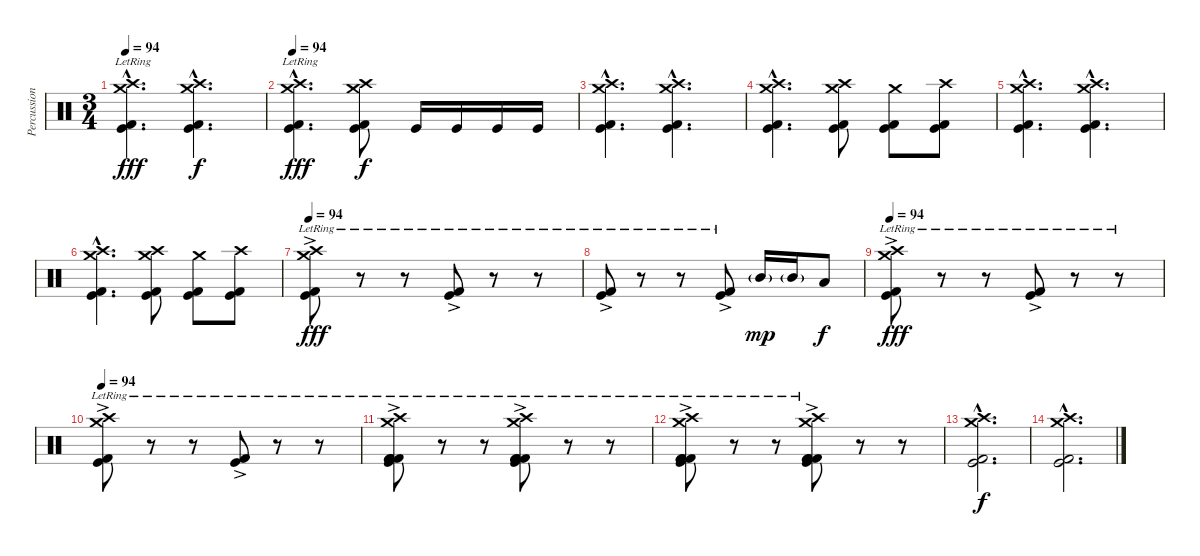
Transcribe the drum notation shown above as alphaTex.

\track ("Percussion" "Percussion") {instrument percussion}
\staff {score}
\articulation defaults
\ts (3 4)
\tempo 94
\clef neutral
\ks c
("Crash high (hit)"{hac} "Crash medium (hit)"{hac} "Kick (hit)"{hac} "Kick (hit) 2"{hac lr}).4{d dy fff} ("Crash high (hit)"{hac} "Crash medium (hit)"{hac} "Kick (hit)"{hac} "Kick (hit) 2"{hac}).4{d dy f} |
\tempo 94
("Crash high (hit)"{hac} "Crash medium (hit)"{hac} "Kick (hit)"{hac} "Kick (hit) 2"{hac lr}).4{d dy fff} ("Crash high (hit)" "Crash medium (hit)" "Kick (hit)" "Kick (hit) 2").8{dy f} "Kick (hit)".16 "Kick (hit)".16 "Kick (hit)".16 "Kick (hit)".16 |
("Crash high (hit)"{hac} "Crash medium (hit)"{hac} "Kick (hit)"{hac} "Kick (hit) 2"{hac}).4{d} ("Crash high (hit)"{hac} "Crash medium (hit)"{hac} "Kick (hit)"{hac} "Kick (hit) 2"{hac}).4{d} |
("Crash high (hit)"{hac} "Crash medium (hit)"{hac} "Kick (hit)"{hac} "Kick (hit) 2"{hac}).4{d} ("Crash high (hit)" "Crash medium (hit)" "Kick (hit)" "Kick (hit) 2").8 ("Crash medium (hit)" "Kick (hit)" "Kick (hit) 2").8 ("Crash high (hit)" "Kick (hit)" "Kick (hit) 2").8 |
("Crash high (hit)"{hac} "Crash medium (hit)"{hac} "Kick (hit)"{hac} "Kick (hit) 2"{hac}).4{d} ("Crash high (hit)"{hac} "Crash medium (hit)"{hac} "Kick (hit)"{hac} "Kick (hit) 2"{hac}).4{d} |
("Crash high (hit)"{hac} "Crash medium (hit)"{hac} "Kick (hit)"{hac} "Kick (hit) 2"{hac}).4{d} ("Crash high (hit)" "Crash medium (hit)" "Kick (hit)" "Kick (hit) 2").8 ("Crash medium (hit)" "Kick (hit)" "Kick (hit) 2").8 ("Crash high (hit)" "Kick (hit)" "Kick (hit) 2").8 |
\tempo 94
("Crash high (hit)" "Crash medium (hit)" "Kick (hit)" "Kick (hit) 2"{ac lr}).8{dy fff} r.8 r.8 ("Kick (hit)" "Kick (hit) 2"{ac lr}).8 r.8 r.8 |
("Kick (hit)" "Kick (hit) 2"{ac lr}).8 r.8 r.8 ("Kick (hit)" "Kick (hit) 2"{ac lr}).8 "Mid Tom (hit)"{g}.16{dy mp} "Mid Tom (hit)"{g}.16 "Low Tom (hit)".8{dy f} |
\tempo 94
("Crash high (hit)" "Crash medium (hit)" "Kick (hit)" "Kick (hit) 2"{ac lr}).8{dy fff} r.8 r.8 ("Kick (hit)" "Kick (hit) 2"{ac lr}).8 r.8 r.8 |
\tempo 94
("Crash high (hit)" "Crash medium (hit)" "Kick (hit)" "Kick (hit) 2"{ac lr}).8 r.8 r.8 ("Kick (hit)" "Kick (hit) 2"{ac lr}).8 r.8 r.8 |
("Crash high (hit)" "Crash medium (hit)" "Kick (hit) 2" "Kick (hit) 2" "Kick (hit)" "Kick (hit) 2"{ac lr}).8 r.8 r.8 ("Crash high (hit)" "Crash medium (hit)" "Kick (hit) 2" "Kick (hit) 2" "Kick (hit)" "Kick (hit) 2"{ac lr}).8 r.8 r.8 |
("Crash high (hit)" "Crash medium (hit)" "Kick (hit) 2" "Kick (hit) 2" "Kick (hit)" "Kick (hit) 2"{ac lr}).8 r.8 r.8 ("Crash high (hit)" "Crash medium (hit)" "Kick (hit) 2" "Kick (hit) 2" "Kick (hit)" "Kick (hit) 2"{ac lr}).8 r.8 r.8 |
("Crash high (hit)"{hac} "Crash medium (hit)"{hac} "Kick (hit)"{hac} "Kick (hit) 2"{hac}).2{d dy f} |
("Crash high (hit)"{hac} "Crash medium (hit)"{hac} "Kick (hit)"{hac} "Kick (hit) 2"{hac}).2{d}
